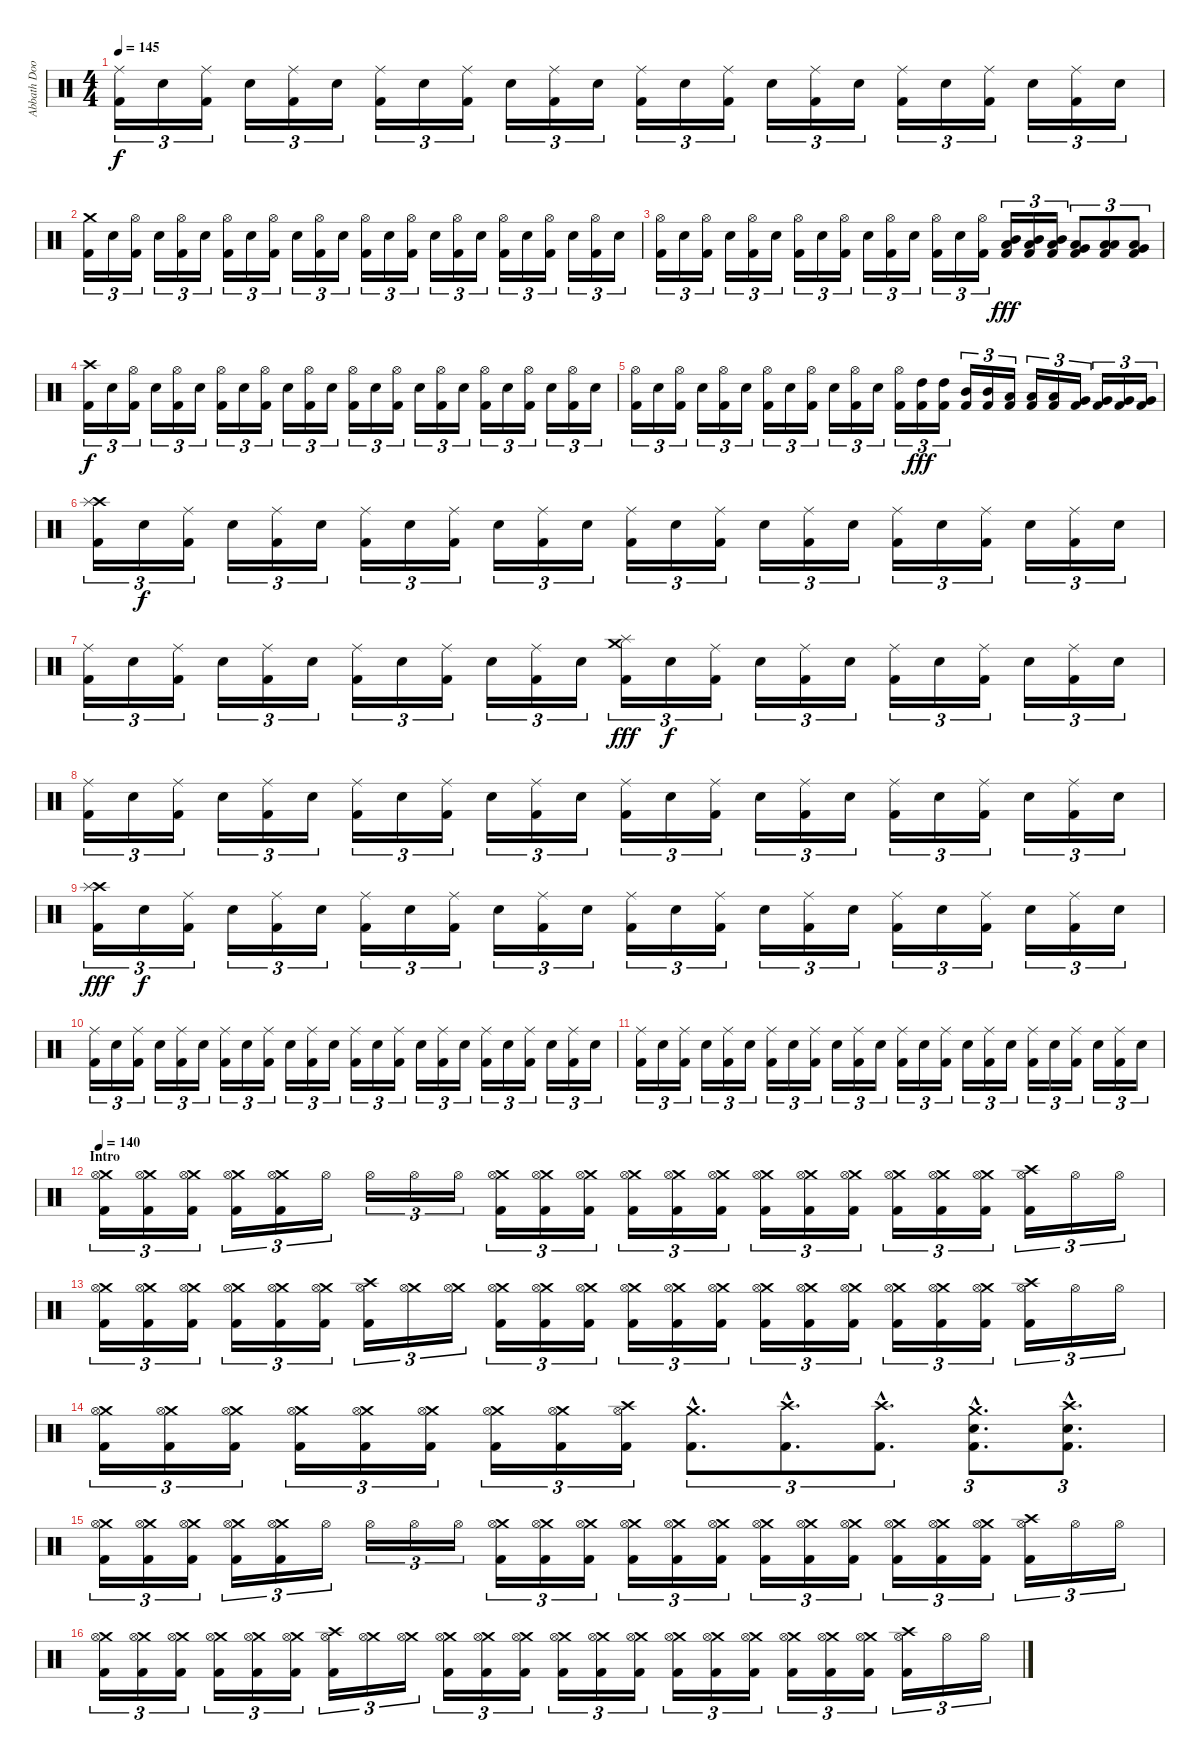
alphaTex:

\track ("Abbath Doom Occulta" "Abbath Doo") {instrument percussion}
\staff {score}
\articulation defaults
\ts (4 4)
\tempo 145
\clef neutral
\ks c
("Ride (middle)" "Kick (hit) 2").16{tu (3 2) dy f} "Electric Snare (hit)".16{tu (3 2)} ("Ride (middle)" "Kick (hit) 2").16{tu (3 2)} "Electric Snare (hit)".16{tu (3 2)} ("Ride (middle)" "Kick (hit) 2").16{tu (3 2)} "Electric Snare (hit)".16{tu (3 2)} ("Ride (middle)" "Kick (hit) 2").16{tu (3 2)} "Electric Snare (hit)".16{tu (3 2)} ("Ride (middle)" "Kick (hit) 2").16{tu (3 2)} "Electric Snare (hit)".16{tu (3 2)} ("Ride (middle)" "Kick (hit) 2").16{tu (3 2)} "Electric Snare (hit)".16{tu (3 2)} ("Ride (middle)" "Kick (hit) 2").16{tu (3 2)} "Electric Snare (hit)".16{tu (3 2)} ("Ride (middle)" "Kick (hit) 2").16{tu (3 2)} "Electric Snare (hit)".16{tu (3 2)} ("Ride (middle)" "Kick (hit) 2").16{tu (3 2)} "Electric Snare (hit)".16{tu (3 2)} ("Ride (middle)" "Kick (hit) 2").16{tu (3 2)} "Electric Snare (hit)".16{tu (3 2)} ("Ride (middle)" "Kick (hit) 2").16{tu (3 2)} "Electric Snare (hit)".16{tu (3 2)} ("Ride (middle)" "Kick (hit) 2").16{tu (3 2)} "Electric Snare (hit)".16{tu (3 2)} |
("Crash medium (hit)" "Kick (hit) 2").16{tu (3 2)} "Electric Snare (hit)".16{tu (3 2)} ("Hi-Hat (open)" "Kick (hit) 2").16{tu (3 2)} "Electric Snare (hit)".16{tu (3 2)} ("Hi-Hat (open)" "Kick (hit) 2").16{tu (3 2)} "Electric Snare (hit)".16{tu (3 2)} ("Hi-Hat (open)" "Kick (hit) 2").16{tu (3 2)} "Electric Snare (hit)".16{tu (3 2)} ("Hi-Hat (open)" "Kick (hit) 2").16{tu (3 2)} "Electric Snare (hit)".16{tu (3 2)} ("Hi-Hat (open)" "Kick (hit) 2").16{tu (3 2)} "Electric Snare (hit)".16{tu (3 2)} ("Hi-Hat (open)" "Kick (hit) 2").16{tu (3 2)} "Electric Snare (hit)".16{tu (3 2)} ("Hi-Hat (open)" "Kick (hit) 2").16{tu (3 2)} "Electric Snare (hit)".16{tu (3 2)} ("Hi-Hat (open)" "Kick (hit) 2").16{tu (3 2)} "Electric Snare (hit)".16{tu (3 2)} ("Hi-Hat (open)" "Kick (hit) 2").16{tu (3 2)} "Electric Snare (hit)".16{tu (3 2)} ("Hi-Hat (open)" "Kick (hit) 2").16{tu (3 2)} "Electric Snare (hit)".16{tu (3 2)} ("Hi-Hat (open)" "Kick (hit) 2").16{tu (3 2)} "Electric Snare (hit)".16{tu (3 2)} |
("Hi-Hat (open)" "Kick (hit) 2").16{tu (3 2)} "Electric Snare (hit)".16{tu (3 2)} ("Hi-Hat (open)" "Kick (hit) 2").16{tu (3 2)} "Electric Snare (hit)".16{tu (3 2)} ("Hi-Hat (open)" "Kick (hit) 2").16{tu (3 2)} "Electric Snare (hit)".16{tu (3 2)} ("Hi-Hat (open)" "Kick (hit) 2").16{tu (3 2)} "Electric Snare (hit)".16{tu (3 2)} ("Hi-Hat (open)" "Kick (hit) 2").16{tu (3 2)} "Electric Snare (hit)".16{tu (3 2)} ("Hi-Hat (open)" "Kick (hit) 2").16{tu (3 2)} "Electric Snare (hit)".16{tu (3 2)} ("Hi-Hat (open)" "Kick (hit) 2").16{tu (3 2)} "Electric Snare (hit)".16{tu (3 2)} ("Hi-Hat (open)" "Kick (hit) 2").16{tu (3 2)} ("Mid Tom (hit)" "Low Tom (hit)" "Kick (hit) 2").16{tu (3 2) dy fff} ("Mid Tom (hit)" "Low Tom (hit)" "Kick (hit) 2").16{tu (3 2)} ("Mid Tom (hit)" "Low Tom (hit)" "Kick (hit) 2").16{tu (3 2)} ("Very Low Tom (hit)" "Low Floor Tom (hit)" "Kick (hit) 2").8{tu (3 2)} ("Low Floor Tom (hit)" "Low Floor Tom (hit)" "Kick (hit) 2").8{tu (3 2)} ("Very Low Tom (hit)" "Low Floor Tom (hit)" "Kick (hit) 2").8{tu (3 2)} |
("Crash high (hit)" "Kick (hit) 2").16{tu (3 2) dy f} "Electric Snare (hit)".16{tu (3 2)} ("Hi-Hat (open)" "Kick (hit) 2").16{tu (3 2)} "Electric Snare (hit)".16{tu (3 2)} ("Hi-Hat (open)" "Kick (hit) 2").16{tu (3 2)} "Electric Snare (hit)".16{tu (3 2)} ("Hi-Hat (open)" "Kick (hit) 2").16{tu (3 2)} "Electric Snare (hit)".16{tu (3 2)} ("Hi-Hat (open)" "Kick (hit) 2").16{tu (3 2)} "Electric Snare (hit)".16{tu (3 2)} ("Hi-Hat (open)" "Kick (hit) 2").16{tu (3 2)} "Electric Snare (hit)".16{tu (3 2)} ("Hi-Hat (open)" "Kick (hit) 2").16{tu (3 2)} "Electric Snare (hit)".16{tu (3 2)} ("Hi-Hat (open)" "Kick (hit) 2").16{tu (3 2)} "Electric Snare (hit)".16{tu (3 2)} ("Hi-Hat (open)" "Kick (hit) 2").16{tu (3 2)} "Electric Snare (hit)".16{tu (3 2)} ("Hi-Hat (open)" "Kick (hit) 2").16{tu (3 2)} "Electric Snare (hit)".16{tu (3 2)} ("Hi-Hat (open)" "Kick (hit) 2").16{tu (3 2)} "Electric Snare (hit)".16{tu (3 2)} ("Hi-Hat (open)" "Kick (hit) 2").16{tu (3 2)} "Electric Snare (hit)".16{tu (3 2)} |
("Hi-Hat (open)" "Kick (hit) 2").16{tu (3 2)} "Electric Snare (hit)".16{tu (3 2)} ("Hi-Hat (open)" "Kick (hit) 2").16{tu (3 2)} "Electric Snare (hit)".16{tu (3 2)} ("Hi-Hat (open)" "Kick (hit) 2").16{tu (3 2)} "Electric Snare (hit)".16{tu (3 2)} ("Hi-Hat (open)" "Kick (hit) 2").16{tu (3 2)} "Electric Snare (hit)".16{tu (3 2)} ("Hi-Hat (open)" "Kick (hit) 2").16{tu (3 2)} "Electric Snare (hit)".16{tu (3 2)} ("Hi-Hat (open)" "Kick (hit) 2").16{tu (3 2)} "Electric Snare (hit)".16{tu (3 2)} ("Hi-Hat (open)" "Kick (hit) 2").16{tu (3 2)} ("High Tom (hit)" "Kick (hit) 2").16{tu (3 2) dy fff} ("High Tom (hit)" "Kick (hit) 2").16{tu (3 2)} ("Mid Tom (hit)" "Kick (hit) 2").16{tu (3 2)} ("Mid Tom (hit)" "Kick (hit) 2").16{tu (3 2)} ("Low Tom (hit)" "Kick (hit) 2").16{tu (3 2)} ("Low Tom (hit)" "Kick (hit) 2").16{tu (3 2)} ("Low Tom (hit)" "Kick (hit) 2").16{tu (3 2)} ("Very Low Tom (hit)" "Kick (hit) 2").16{tu (3 2)} ("Very Low Tom (hit)" "Kick (hit) 2").16{tu (3 2)} ("Very Low Tom (hit)" "Kick (hit) 2").16{tu (3 2)} ("Very Low Tom (hit)" "Kick (hit) 2").16{tu (3 2)} |
("Crash high (hit)" "Splash (hit)" "Kick (hit) 2").16{tu (3 2)} "Electric Snare (hit)".16{tu (3 2) dy f} ("Ride (middle)" "Kick (hit) 2").16{tu (3 2)} "Electric Snare (hit)".16{tu (3 2)} ("Ride (middle)" "Kick (hit) 2").16{tu (3 2)} "Electric Snare (hit)".16{tu (3 2)} ("Ride (middle)" "Kick (hit) 2").16{tu (3 2)} "Electric Snare (hit)".16{tu (3 2)} ("Ride (middle)" "Kick (hit) 2").16{tu (3 2)} "Electric Snare (hit)".16{tu (3 2)} ("Ride (middle)" "Kick (hit) 2").16{tu (3 2)} "Electric Snare (hit)".16{tu (3 2)} ("Ride (middle)" "Kick (hit) 2").16{tu (3 2)} "Electric Snare (hit)".16{tu (3 2)} ("Ride (middle)" "Kick (hit) 2").16{tu (3 2)} "Electric Snare (hit)".16{tu (3 2)} ("Ride (middle)" "Kick (hit) 2").16{tu (3 2)} "Electric Snare (hit)".16{tu (3 2)} ("Ride (middle)" "Kick (hit) 2").16{tu (3 2)} "Electric Snare (hit)".16{tu (3 2)} ("Ride (middle)" "Kick (hit) 2").16{tu (3 2)} "Electric Snare (hit)".16{tu (3 2)} ("Ride (middle)" "Kick (hit) 2").16{tu (3 2)} "Electric Snare (hit)".16{tu (3 2)} |
("Ride (middle)" "Kick (hit) 2").16{tu (3 2)} "Electric Snare (hit)".16{tu (3 2)} ("Ride (middle)" "Kick (hit) 2").16{tu (3 2)} "Electric Snare (hit)".16{tu (3 2)} ("Ride (middle)" "Kick (hit) 2").16{tu (3 2)} "Electric Snare (hit)".16{tu (3 2)} ("Ride (middle)" "Kick (hit) 2").16{tu (3 2)} "Electric Snare (hit)".16{tu (3 2)} ("Ride (middle)" "Kick (hit) 2").16{tu (3 2)} "Electric Snare (hit)".16{tu (3 2)} ("Ride (middle)" "Kick (hit) 2").16{tu (3 2)} "Electric Snare (hit)".16{tu (3 2)} ("Crash medium (hit)" "Splash (hit)" "Kick (hit) 2").16{tu (3 2) dy fff} "Electric Snare (hit)".16{tu (3 2) dy f} ("Ride (middle)" "Kick (hit) 2").16{tu (3 2)} "Electric Snare (hit)".16{tu (3 2)} ("Ride (middle)" "Kick (hit) 2").16{tu (3 2)} "Electric Snare (hit)".16{tu (3 2)} ("Ride (middle)" "Kick (hit) 2").16{tu (3 2)} "Electric Snare (hit)".16{tu (3 2)} ("Ride (middle)" "Kick (hit) 2").16{tu (3 2)} "Electric Snare (hit)".16{tu (3 2)} ("Ride (middle)" "Kick (hit) 2").16{tu (3 2)} "Electric Snare (hit)".16{tu (3 2)} |
("Ride (middle)" "Kick (hit) 2").16{tu (3 2)} "Electric Snare (hit)".16{tu (3 2)} ("Ride (middle)" "Kick (hit) 2").16{tu (3 2)} "Electric Snare (hit)".16{tu (3 2)} ("Ride (middle)" "Kick (hit) 2").16{tu (3 2)} "Electric Snare (hit)".16{tu (3 2)} ("Ride (middle)" "Kick (hit) 2").16{tu (3 2)} "Electric Snare (hit)".16{tu (3 2)} ("Ride (middle)" "Kick (hit) 2").16{tu (3 2)} "Electric Snare (hit)".16{tu (3 2)} ("Ride (middle)" "Kick (hit) 2").16{tu (3 2)} "Electric Snare (hit)".16{tu (3 2)} ("Ride (middle)" "Kick (hit) 2").16{tu (3 2)} "Electric Snare (hit)".16{tu (3 2)} ("Ride (middle)" "Kick (hit) 2").16{tu (3 2)} "Electric Snare (hit)".16{tu (3 2)} ("Ride (middle)" "Kick (hit) 2").16{tu (3 2)} "Electric Snare (hit)".16{tu (3 2)} ("Ride (middle)" "Kick (hit) 2").16{tu (3 2)} "Electric Snare (hit)".16{tu (3 2)} ("Ride (middle)" "Kick (hit) 2").16{tu (3 2)} "Electric Snare (hit)".16{tu (3 2)} ("Ride (middle)" "Kick (hit) 2").16{tu (3 2)} "Electric Snare (hit)".16{tu (3 2)} |
("Crash high (hit)" "Splash (hit)" "Kick (hit) 2").16{tu (3 2) dy fff} "Electric Snare (hit)".16{tu (3 2) dy f} ("Ride (middle)" "Kick (hit) 2").16{tu (3 2)} "Electric Snare (hit)".16{tu (3 2)} ("Ride (middle)" "Kick (hit) 2").16{tu (3 2)} "Electric Snare (hit)".16{tu (3 2)} ("Ride (middle)" "Kick (hit) 2").16{tu (3 2)} "Electric Snare (hit)".16{tu (3 2)} ("Ride (middle)" "Kick (hit) 2").16{tu (3 2)} "Electric Snare (hit)".16{tu (3 2)} ("Ride (middle)" "Kick (hit) 2").16{tu (3 2)} "Electric Snare (hit)".16{tu (3 2)} ("Ride (middle)" "Kick (hit) 2").16{tu (3 2)} "Electric Snare (hit)".16{tu (3 2)} ("Ride (middle)" "Kick (hit) 2").16{tu (3 2)} "Electric Snare (hit)".16{tu (3 2)} ("Ride (middle)" "Kick (hit) 2").16{tu (3 2)} "Electric Snare (hit)".16{tu (3 2)} ("Ride (middle)" "Kick (hit) 2").16{tu (3 2)} "Electric Snare (hit)".16{tu (3 2)} ("Ride (middle)" "Kick (hit) 2").16{tu (3 2)} "Electric Snare (hit)".16{tu (3 2)} ("Ride (middle)" "Kick (hit) 2").16{tu (3 2)} "Electric Snare (hit)".16{tu (3 2)} |
("Ride (middle)" "Kick (hit) 2").16{tu (3 2)} "Electric Snare (hit)".16{tu (3 2)} ("Ride (middle)" "Kick (hit) 2").16{tu (3 2)} "Electric Snare (hit)".16{tu (3 2)} ("Ride (middle)" "Kick (hit) 2").16{tu (3 2)} "Electric Snare (hit)".16{tu (3 2)} ("Ride (middle)" "Kick (hit) 2").16{tu (3 2)} "Electric Snare (hit)".16{tu (3 2)} ("Ride (middle)" "Kick (hit) 2").16{tu (3 2)} "Electric Snare (hit)".16{tu (3 2)} ("Ride (middle)" "Kick (hit) 2").16{tu (3 2)} "Electric Snare (hit)".16{tu (3 2)} ("Ride (middle)" "Kick (hit) 2").16{tu (3 2)} "Electric Snare (hit)".16{tu (3 2)} ("Ride (middle)" "Kick (hit) 2").16{tu (3 2)} "Electric Snare (hit)".16{tu (3 2)} ("Ride (middle)" "Kick (hit) 2").16{tu (3 2)} "Electric Snare (hit)".16{tu (3 2)} ("Ride (middle)" "Kick (hit) 2").16{tu (3 2)} "Electric Snare (hit)".16{tu (3 2)} ("Ride (middle)" "Kick (hit) 2").16{tu (3 2)} "Electric Snare (hit)".16{tu (3 2)} ("Ride (middle)" "Kick (hit) 2").16{tu (3 2)} "Electric Snare (hit)".16{tu (3 2)} |
("Ride (middle)" "Kick (hit) 2").16{tu (3 2)} "Electric Snare (hit)".16{tu (3 2)} ("Ride (middle)" "Kick (hit) 2").16{tu (3 2)} "Electric Snare (hit)".16{tu (3 2)} ("Ride (middle)" "Kick (hit) 2").16{tu (3 2)} "Electric Snare (hit)".16{tu (3 2)} ("Ride (middle)" "Kick (hit) 2").16{tu (3 2)} "Electric Snare (hit)".16{tu (3 2)} ("Ride (middle)" "Kick (hit) 2").16{tu (3 2)} "Electric Snare (hit)".16{tu (3 2)} ("Ride (middle)" "Kick (hit) 2").16{tu (3 2)} "Electric Snare (hit)".16{tu (3 2)} ("Ride (middle)" "Kick (hit) 2").16{tu (3 2)} "Electric Snare (hit)".16{tu (3 2)} ("Ride (middle)" "Kick (hit) 2").16{tu (3 2)} "Electric Snare (hit)".16{tu (3 2)} ("Ride (middle)" "Kick (hit) 2").16{tu (3 2)} "Electric Snare (hit)".16{tu (3 2)} ("Ride (middle)" "Kick (hit) 2").16{tu (3 2)} "Electric Snare (hit)".16{tu (3 2)} ("Ride (middle)" "Kick (hit) 2").16{tu (3 2)} "Electric Snare (hit)".16{tu (3 2)} ("Ride (middle)" "Kick (hit) 2").16{tu (3 2)} "Electric Snare (hit)".16{tu (3 2)} |
\section ("" "Intro")
\tempo 140
("Crash medium (hit)" "Hi-Hat (open)" "Kick (hit) 2").16{tu (3 2)} ("Crash medium (hit)" "Hi-Hat (open)" "Kick (hit) 2").16{tu (3 2)} ("Crash medium (hit)" "Hi-Hat (open)" "Kick (hit) 2").16{tu (3 2)} ("Crash medium (hit)" "Hi-Hat (open)" "Kick (hit) 2").16{tu (3 2)} ("Crash medium (hit)" "Hi-Hat (open)" "Kick (hit) 2").16{tu (3 2)} "Hi-Hat (open)".16{tu (3 2)} "Hi-Hat (open)".16{tu (3 2)} "Hi-Hat (open)".16{tu (3 2)} "Hi-Hat (open)".16{tu (3 2)} ("Crash medium (hit)" "Hi-Hat (open)" "Kick (hit) 2").16{tu (3 2)} ("Crash medium (hit)" "Hi-Hat (open)" "Kick (hit) 2").16{tu (3 2)} ("Crash medium (hit)" "Hi-Hat (open)" "Kick (hit) 2").16{tu (3 2)} ("Crash medium (hit)" "Hi-Hat (open)" "Kick (hit) 2").16{tu (3 2)} ("Crash medium (hit)" "Hi-Hat (open)" "Kick (hit) 2").16{tu (3 2)} ("Crash medium (hit)" "Hi-Hat (open)" "Kick (hit) 2").16{tu (3 2)} ("Crash medium (hit)" "Hi-Hat (open)" "Kick (hit) 2").16{tu (3 2)} ("Crash medium (hit)" "Hi-Hat (open)" "Kick (hit) 2").16{tu (3 2)} ("Crash medium (hit)" "Hi-Hat (open)" "Kick (hit) 2").16{tu (3 2)} ("Crash medium (hit)" "Hi-Hat (open)" "Kick (hit) 2").16{tu (3 2)} ("Crash medium (hit)" "Hi-Hat (open)" "Kick (hit) 2").16{tu (3 2)} ("Crash medium (hit)" "Hi-Hat (open)" "Kick (hit) 2").16{tu (3 2)} ("Crash high (hit)" "Hi-Hat (open)" "Kick (hit) 2").16{tu (3 2)} "Hi-Hat (open)".16{tu (3 2)} "Hi-Hat (open)".16{tu (3 2)} |
("Crash medium (hit)" "Hi-Hat (open)" "Kick (hit) 2").16{tu (3 2)} ("Crash medium (hit)" "Hi-Hat (open)" "Kick (hit) 2").16{tu (3 2)} ("Crash medium (hit)" "Hi-Hat (open)" "Kick (hit) 2").16{tu (3 2)} ("Crash medium (hit)" "Hi-Hat (open)" "Kick (hit) 2").16{tu (3 2)} ("Crash medium (hit)" "Hi-Hat (open)" "Kick (hit) 2").16{tu (3 2)} ("Crash medium (hit)" "Hi-Hat (open)" "Kick (hit) 2").16{tu (3 2)} ("Crash high (hit)" "Hi-Hat (open)" "Kick (hit) 2").16{tu (3 2)} ("Crash medium (hit)" "Hi-Hat (open)").16{tu (3 2)} ("Crash medium (hit)" "Hi-Hat (open)").16{tu (3 2)} ("Crash medium (hit)" "Hi-Hat (open)" "Kick (hit) 2").16{tu (3 2)} ("Crash medium (hit)" "Hi-Hat (open)" "Kick (hit) 2").16{tu (3 2)} ("Crash medium (hit)" "Hi-Hat (open)" "Kick (hit) 2").16{tu (3 2)} ("Crash medium (hit)" "Hi-Hat (open)" "Kick (hit) 2").16{tu (3 2)} ("Crash medium (hit)" "Hi-Hat (open)" "Kick (hit) 2").16{tu (3 2)} ("Crash medium (hit)" "Hi-Hat (open)" "Kick (hit) 2").16{tu (3 2)} ("Crash medium (hit)" "Hi-Hat (open)" "Kick (hit) 2").16{tu (3 2)} ("Crash medium (hit)" "Hi-Hat (open)" "Kick (hit) 2").16{tu (3 2)} ("Crash medium (hit)" "Hi-Hat (open)" "Kick (hit) 2").16{tu (3 2)} ("Crash medium (hit)" "Hi-Hat (open)" "Kick (hit) 2").16{tu (3 2)} ("Crash medium (hit)" "Hi-Hat (open)" "Kick (hit) 2").16{tu (3 2)} ("Crash medium (hit)" "Hi-Hat (open)" "Kick (hit) 2").16{tu (3 2)} ("Crash high (hit)" "Hi-Hat (open)" "Kick (hit) 2").16{tu (3 2)} "Hi-Hat (open)".16{tu (3 2)} "Hi-Hat (open)".16{tu (3 2)} |
("Crash medium (hit)" "Hi-Hat (open)" "Kick (hit) 2").16{tu (3 2)} ("Crash medium (hit)" "Hi-Hat (open)" "Kick (hit) 2").16{tu (3 2)} ("Crash medium (hit)" "Hi-Hat (open)" "Kick (hit) 2").16{tu (3 2)} ("Crash medium (hit)" "Hi-Hat (open)" "Kick (hit) 2").16{tu (3 2)} ("Crash medium (hit)" "Hi-Hat (open)" "Kick (hit) 2").16{tu (3 2)} ("Crash medium (hit)" "Hi-Hat (open)" "Kick (hit) 2").16{tu (3 2)} ("Crash medium (hit)" "Hi-Hat (open)" "Kick (hit) 2").16{tu (3 2)} ("Crash medium (hit)" "Hi-Hat (open)" "Kick (hit) 2").16{tu (3 2)} ("Crash high (hit)" "Hi-Hat (open)" "Kick (hit) 2").16{tu (3 2)} ("Crash medium (hit)"{hac} "Kick (hit) 2"{hac}).8{d tu (3 2)} ("Crash high (hit)"{hac} "Kick (hit) 2"{hac}).8{d tu (3 2)} ("Crash high (hit)"{hac} "Kick (hit) 2"{hac}).8{d tu (3 2)} ("Crash medium (hit)"{hac} "Electric Snare (hit)"{hac} "Kick (hit) 2"{hac}).8{d tu (3 2)} ("Crash high (hit)"{hac} "Electric Snare (hit)"{hac} "Kick (hit) 2"{hac}).8{d tu (3 2)} |
("Crash medium (hit)" "Hi-Hat (open)" "Kick (hit) 2").16{tu (3 2)} ("Crash medium (hit)" "Hi-Hat (open)" "Kick (hit) 2").16{tu (3 2)} ("Crash medium (hit)" "Hi-Hat (open)" "Kick (hit) 2").16{tu (3 2)} ("Crash medium (hit)" "Hi-Hat (open)" "Kick (hit) 2").16{tu (3 2)} ("Crash medium (hit)" "Hi-Hat (open)" "Kick (hit) 2").16{tu (3 2)} "Hi-Hat (open)".16{tu (3 2)} "Hi-Hat (open)".16{tu (3 2)} "Hi-Hat (open)".16{tu (3 2)} "Hi-Hat (open)".16{tu (3 2)} ("Crash medium (hit)" "Hi-Hat (open)" "Kick (hit) 2").16{tu (3 2)} ("Crash medium (hit)" "Hi-Hat (open)" "Kick (hit) 2").16{tu (3 2)} ("Crash medium (hit)" "Hi-Hat (open)" "Kick (hit) 2").16{tu (3 2)} ("Crash medium (hit)" "Hi-Hat (open)" "Kick (hit) 2").16{tu (3 2)} ("Crash medium (hit)" "Hi-Hat (open)" "Kick (hit) 2").16{tu (3 2)} ("Crash medium (hit)" "Hi-Hat (open)" "Kick (hit) 2").16{tu (3 2)} ("Crash medium (hit)" "Hi-Hat (open)" "Kick (hit) 2").16{tu (3 2)} ("Crash medium (hit)" "Hi-Hat (open)" "Kick (hit) 2").16{tu (3 2)} ("Crash medium (hit)" "Hi-Hat (open)" "Kick (hit) 2").16{tu (3 2)} ("Crash medium (hit)" "Hi-Hat (open)" "Kick (hit) 2").16{tu (3 2)} ("Crash medium (hit)" "Hi-Hat (open)" "Kick (hit) 2").16{tu (3 2)} ("Crash medium (hit)" "Hi-Hat (open)" "Kick (hit) 2").16{tu (3 2)} ("Crash high (hit)" "Hi-Hat (open)" "Kick (hit) 2").16{tu (3 2)} "Hi-Hat (open)".16{tu (3 2)} "Hi-Hat (open)".16{tu (3 2)} |
("Crash medium (hit)" "Hi-Hat (open)" "Kick (hit) 2").16{tu (3 2)} ("Crash medium (hit)" "Hi-Hat (open)" "Kick (hit) 2").16{tu (3 2)} ("Crash medium (hit)" "Hi-Hat (open)" "Kick (hit) 2").16{tu (3 2)} ("Crash medium (hit)" "Hi-Hat (open)" "Kick (hit) 2").16{tu (3 2)} ("Crash medium (hit)" "Hi-Hat (open)" "Kick (hit) 2").16{tu (3 2)} ("Crash medium (hit)" "Hi-Hat (open)" "Kick (hit) 2").16{tu (3 2)} ("Crash high (hit)" "Hi-Hat (open)" "Kick (hit) 2").16{tu (3 2)} ("Crash medium (hit)" "Hi-Hat (open)").16{tu (3 2)} ("Crash medium (hit)" "Hi-Hat (open)").16{tu (3 2)} ("Crash medium (hit)" "Hi-Hat (open)" "Kick (hit) 2").16{tu (3 2)} ("Crash medium (hit)" "Hi-Hat (open)" "Kick (hit) 2").16{tu (3 2)} ("Crash medium (hit)" "Hi-Hat (open)" "Kick (hit) 2").16{tu (3 2)} ("Crash medium (hit)" "Hi-Hat (open)" "Kick (hit) 2").16{tu (3 2)} ("Crash medium (hit)" "Hi-Hat (open)" "Kick (hit) 2").16{tu (3 2)} ("Crash medium (hit)" "Hi-Hat (open)" "Kick (hit) 2").16{tu (3 2)} ("Crash medium (hit)" "Hi-Hat (open)" "Kick (hit) 2").16{tu (3 2)} ("Crash medium (hit)" "Hi-Hat (open)" "Kick (hit) 2").16{tu (3 2)} ("Crash medium (hit)" "Hi-Hat (open)" "Kick (hit) 2").16{tu (3 2)} ("Crash medium (hit)" "Hi-Hat (open)" "Kick (hit) 2").16{tu (3 2)} ("Crash medium (hit)" "Hi-Hat (open)" "Kick (hit) 2").16{tu (3 2)} ("Crash medium (hit)" "Hi-Hat (open)" "Kick (hit) 2").16{tu (3 2)} ("Crash high (hit)" "Hi-Hat (open)" "Kick (hit) 2").16{tu (3 2)} "Hi-Hat (open)".16{tu (3 2)} "Hi-Hat (open)".16{tu (3 2)}
